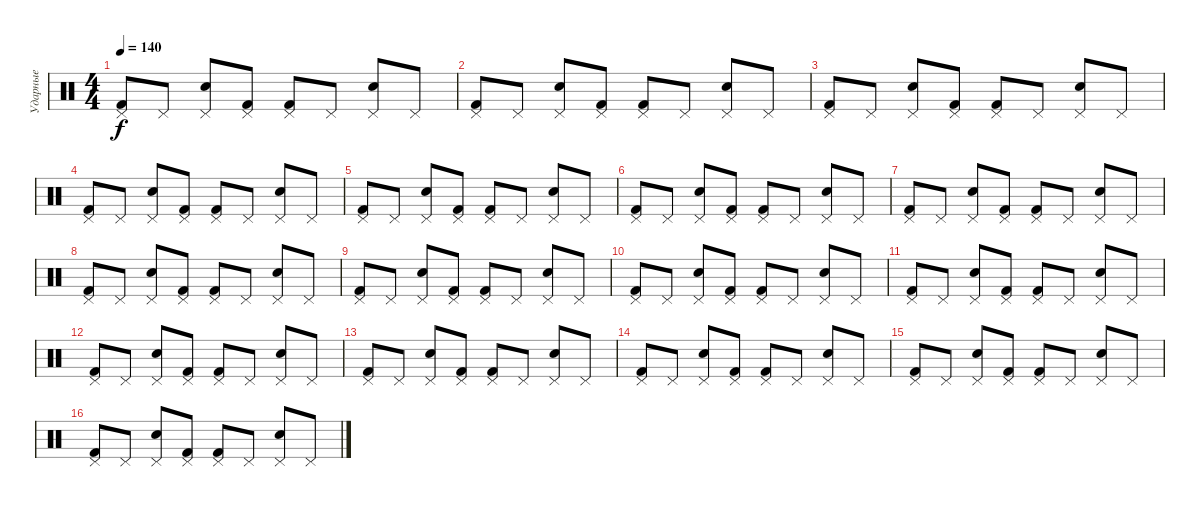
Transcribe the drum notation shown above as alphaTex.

\track ("Ударные" "Ударные") {instrument percussion}
\staff {score}
\articulation defaults
\ts (4 4)
\tempo 140
\clef neutral
\ks c
("Kick (hit) 2" "Pedal Hi-Hat (hit)").8{dy f} "Pedal Hi-Hat (hit)".8 ("Pedal Hi-Hat (hit)" "Electric Snare (hit)").8 ("Kick (hit) 2" "Pedal Hi-Hat (hit)").8 ("Kick (hit) 2" "Pedal Hi-Hat (hit)").8 "Pedal Hi-Hat (hit)".8 ("Pedal Hi-Hat (hit)" "Electric Snare (hit)").8 "Pedal Hi-Hat (hit)".8 |
("Kick (hit) 2" "Pedal Hi-Hat (hit)").8 "Pedal Hi-Hat (hit)".8 ("Pedal Hi-Hat (hit)" "Electric Snare (hit)").8 ("Kick (hit) 2" "Pedal Hi-Hat (hit)").8 ("Kick (hit) 2" "Pedal Hi-Hat (hit)").8 "Pedal Hi-Hat (hit)".8 ("Pedal Hi-Hat (hit)" "Electric Snare (hit)").8 "Pedal Hi-Hat (hit)".8 |
("Kick (hit) 2" "Pedal Hi-Hat (hit)").8 "Pedal Hi-Hat (hit)".8 ("Pedal Hi-Hat (hit)" "Electric Snare (hit)").8 ("Kick (hit) 2" "Pedal Hi-Hat (hit)").8 ("Kick (hit) 2" "Pedal Hi-Hat (hit)").8 "Pedal Hi-Hat (hit)".8 ("Pedal Hi-Hat (hit)" "Electric Snare (hit)").8 "Pedal Hi-Hat (hit)".8 |
("Kick (hit) 2" "Pedal Hi-Hat (hit)").8 "Pedal Hi-Hat (hit)".8 ("Pedal Hi-Hat (hit)" "Electric Snare (hit)").8 ("Kick (hit) 2" "Pedal Hi-Hat (hit)").8 ("Kick (hit) 2" "Pedal Hi-Hat (hit)").8 "Pedal Hi-Hat (hit)".8 ("Pedal Hi-Hat (hit)" "Electric Snare (hit)").8 "Pedal Hi-Hat (hit)".8 |
("Kick (hit) 2" "Pedal Hi-Hat (hit)").8 "Pedal Hi-Hat (hit)".8 ("Pedal Hi-Hat (hit)" "Electric Snare (hit)").8 ("Kick (hit) 2" "Pedal Hi-Hat (hit)").8 ("Kick (hit) 2" "Pedal Hi-Hat (hit)").8 "Pedal Hi-Hat (hit)".8 ("Pedal Hi-Hat (hit)" "Electric Snare (hit)").8 "Pedal Hi-Hat (hit)".8 |
("Kick (hit) 2" "Pedal Hi-Hat (hit)").8 "Pedal Hi-Hat (hit)".8 ("Pedal Hi-Hat (hit)" "Electric Snare (hit)").8 ("Kick (hit) 2" "Pedal Hi-Hat (hit)").8 ("Kick (hit) 2" "Pedal Hi-Hat (hit)").8 "Pedal Hi-Hat (hit)".8 ("Pedal Hi-Hat (hit)" "Electric Snare (hit)").8 "Pedal Hi-Hat (hit)".8 |
("Kick (hit) 2" "Pedal Hi-Hat (hit)").8 "Pedal Hi-Hat (hit)".8 ("Pedal Hi-Hat (hit)" "Electric Snare (hit)").8 ("Kick (hit) 2" "Pedal Hi-Hat (hit)").8 ("Kick (hit) 2" "Pedal Hi-Hat (hit)").8 "Pedal Hi-Hat (hit)".8 ("Pedal Hi-Hat (hit)" "Electric Snare (hit)").8 "Pedal Hi-Hat (hit)".8 |
("Kick (hit) 2" "Pedal Hi-Hat (hit)").8 "Pedal Hi-Hat (hit)".8 ("Pedal Hi-Hat (hit)" "Electric Snare (hit)").8 ("Kick (hit) 2" "Pedal Hi-Hat (hit)").8 ("Kick (hit) 2" "Pedal Hi-Hat (hit)").8 "Pedal Hi-Hat (hit)".8 ("Pedal Hi-Hat (hit)" "Electric Snare (hit)").8 "Pedal Hi-Hat (hit)".8 |
("Kick (hit) 2" "Pedal Hi-Hat (hit)").8 "Pedal Hi-Hat (hit)".8 ("Pedal Hi-Hat (hit)" "Electric Snare (hit)").8 ("Kick (hit) 2" "Pedal Hi-Hat (hit)").8 ("Kick (hit) 2" "Pedal Hi-Hat (hit)").8 "Pedal Hi-Hat (hit)".8 ("Pedal Hi-Hat (hit)" "Electric Snare (hit)").8 "Pedal Hi-Hat (hit)".8 |
("Kick (hit) 2" "Pedal Hi-Hat (hit)").8 "Pedal Hi-Hat (hit)".8 ("Pedal Hi-Hat (hit)" "Electric Snare (hit)").8 ("Kick (hit) 2" "Pedal Hi-Hat (hit)").8 ("Kick (hit) 2" "Pedal Hi-Hat (hit)").8 "Pedal Hi-Hat (hit)".8 ("Pedal Hi-Hat (hit)" "Electric Snare (hit)").8 "Pedal Hi-Hat (hit)".8 |
("Kick (hit) 2" "Pedal Hi-Hat (hit)").8 "Pedal Hi-Hat (hit)".8 ("Pedal Hi-Hat (hit)" "Electric Snare (hit)").8 ("Kick (hit) 2" "Pedal Hi-Hat (hit)").8 ("Kick (hit) 2" "Pedal Hi-Hat (hit)").8 "Pedal Hi-Hat (hit)".8 ("Pedal Hi-Hat (hit)" "Electric Snare (hit)").8 "Pedal Hi-Hat (hit)".8 |
("Kick (hit) 2" "Pedal Hi-Hat (hit)").8 "Pedal Hi-Hat (hit)".8 ("Pedal Hi-Hat (hit)" "Electric Snare (hit)").8 ("Kick (hit) 2" "Pedal Hi-Hat (hit)").8 ("Kick (hit) 2" "Pedal Hi-Hat (hit)").8 "Pedal Hi-Hat (hit)".8 ("Pedal Hi-Hat (hit)" "Electric Snare (hit)").8 "Pedal Hi-Hat (hit)".8 |
("Kick (hit) 2" "Pedal Hi-Hat (hit)").8 "Pedal Hi-Hat (hit)".8 ("Pedal Hi-Hat (hit)" "Electric Snare (hit)").8 ("Kick (hit) 2" "Pedal Hi-Hat (hit)").8 ("Kick (hit) 2" "Pedal Hi-Hat (hit)").8 "Pedal Hi-Hat (hit)".8 ("Pedal Hi-Hat (hit)" "Electric Snare (hit)").8 "Pedal Hi-Hat (hit)".8 |
("Kick (hit) 2" "Pedal Hi-Hat (hit)").8 "Pedal Hi-Hat (hit)".8 ("Pedal Hi-Hat (hit)" "Electric Snare (hit)").8 ("Kick (hit) 2" "Pedal Hi-Hat (hit)").8 ("Kick (hit) 2" "Pedal Hi-Hat (hit)").8 "Pedal Hi-Hat (hit)".8 ("Pedal Hi-Hat (hit)" "Electric Snare (hit)").8 "Pedal Hi-Hat (hit)".8 |
("Kick (hit) 2" "Pedal Hi-Hat (hit)").8 "Pedal Hi-Hat (hit)".8 ("Pedal Hi-Hat (hit)" "Electric Snare (hit)").8 ("Kick (hit) 2" "Pedal Hi-Hat (hit)").8 ("Kick (hit) 2" "Pedal Hi-Hat (hit)").8 "Pedal Hi-Hat (hit)".8 ("Pedal Hi-Hat (hit)" "Electric Snare (hit)").8 "Pedal Hi-Hat (hit)".8 |
("Kick (hit) 2" "Pedal Hi-Hat (hit)").8 "Pedal Hi-Hat (hit)".8 ("Pedal Hi-Hat (hit)" "Electric Snare (hit)").8 ("Kick (hit) 2" "Pedal Hi-Hat (hit)").8 ("Kick (hit) 2" "Pedal Hi-Hat (hit)").8 "Pedal Hi-Hat (hit)".8 ("Pedal Hi-Hat (hit)" "Electric Snare (hit)").8 "Pedal Hi-Hat (hit)".8
